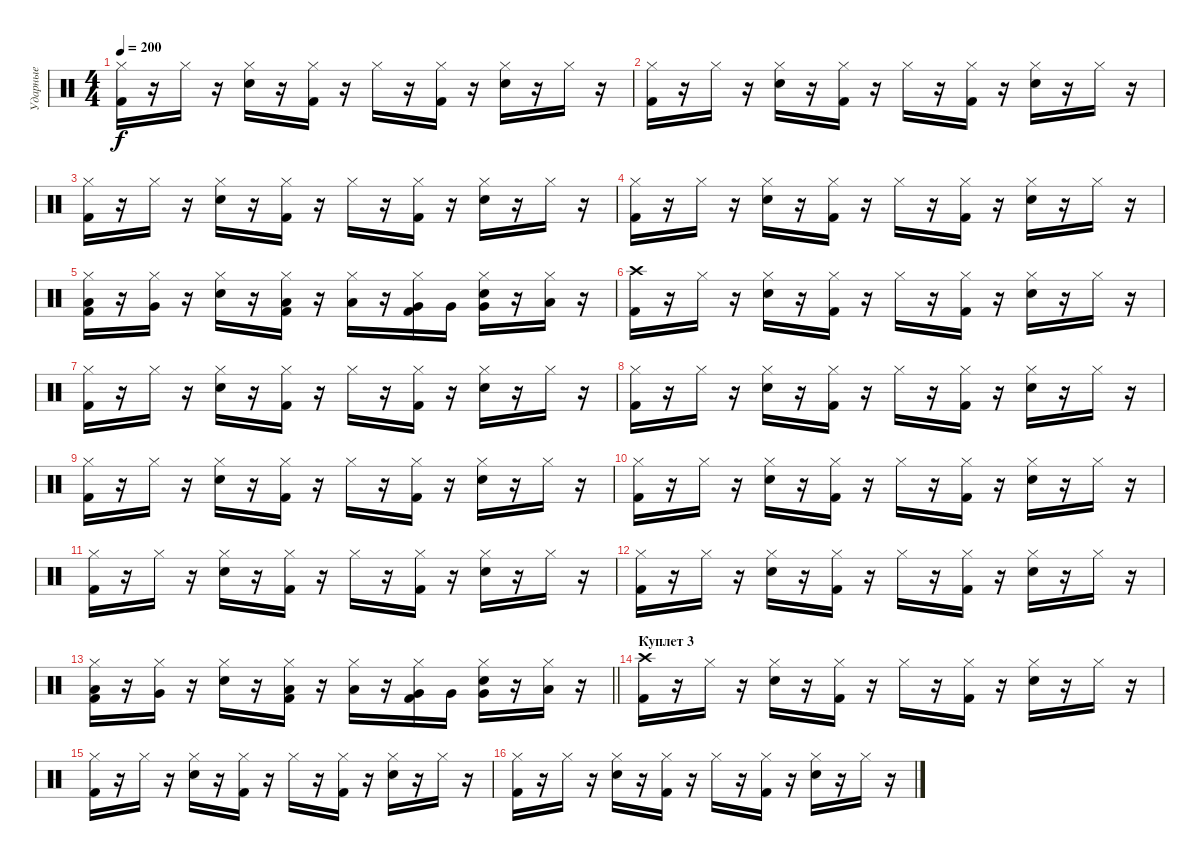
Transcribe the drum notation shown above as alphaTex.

\track ("Ударные" "Ударные") {instrument percussion}
\staff {score}
\articulation defaults
\ts (4 4)
\tempo 200
\clef neutral
\ks c
("Kick (hit) 2" "Hi-Hat (closed)").16{dy f} r.16 "Hi-Hat (closed)".16 r.16 ("Snare (hit) 2" "Hi-Hat (closed)").16 r.16 ("Kick (hit) 2" "Hi-Hat (closed)").16 r.16 "Hi-Hat (closed)".16 r.16 ("Kick (hit) 2" "Hi-Hat (closed)").16 r.16 ("Snare (hit) 2" "Hi-Hat (closed)").16 r.16 "Hi-Hat (closed)".16 r.16 |
("Kick (hit) 2" "Hi-Hat (closed)").16 r.16 "Hi-Hat (closed)".16 r.16 ("Snare (hit) 2" "Hi-Hat (closed)").16 r.16 ("Kick (hit) 2" "Hi-Hat (closed)").16 r.16 "Hi-Hat (closed)".16 r.16 ("Kick (hit) 2" "Hi-Hat (closed)").16 r.16 ("Snare (hit) 2" "Hi-Hat (closed)").16 r.16 "Hi-Hat (closed)".16 r.16 |
("Kick (hit) 2" "Hi-Hat (closed)").16 r.16 "Hi-Hat (closed)".16 r.16 ("Snare (hit) 2" "Hi-Hat (closed)").16 r.16 ("Kick (hit) 2" "Hi-Hat (closed)").16 r.16 "Hi-Hat (closed)".16 r.16 ("Kick (hit) 2" "Hi-Hat (closed)").16 r.16 ("Snare (hit) 2" "Hi-Hat (closed)").16 r.16 "Hi-Hat (closed)".16 r.16 |
("Kick (hit) 2" "Hi-Hat (closed)").16 r.16 "Hi-Hat (closed)".16 r.16 ("Snare (hit) 2" "Hi-Hat (closed)").16 r.16 ("Kick (hit) 2" "Hi-Hat (closed)").16 r.16 "Hi-Hat (closed)".16 r.16 ("Kick (hit) 2" "Hi-Hat (closed)").16 r.16 ("Snare (hit) 2" "Hi-Hat (closed)").16 r.16 "Hi-Hat (closed)".16 r.16 |
("Kick (hit) 2" "Low Floor Tom (hit)" "Hi-Hat (closed)").16 r.16 ("Very Low Tom (hit)" "Hi-Hat (closed)").16 r.16 ("Snare (hit) 2" "Hi-Hat (closed)").16 r.16 ("Kick (hit) 2" "Low Floor Tom (hit)" "Hi-Hat (closed)").16 r.16 ("Low Floor Tom (hit)" "Hi-Hat (closed)").16 r.16 ("Kick (hit) 2" "Very Low Tom (hit)" "Hi-Hat (closed)").16 "Very Low Tom (hit)".16 ("Snare (hit) 2" "Very Low Tom (hit)" "Hi-Hat (closed)").16 r.16 ("Low Tom (hit)" "Hi-Hat (closed)").16 r.16 |
("Kick (hit) 2" "Crash high (hit)").16 r.16 "Hi-Hat (closed)".16 r.16 ("Snare (hit) 2" "Hi-Hat (closed)").16 r.16 ("Kick (hit) 2" "Hi-Hat (closed)").16 r.16 "Hi-Hat (closed)".16 r.16 ("Kick (hit) 2" "Hi-Hat (closed)").16 r.16 ("Snare (hit) 2" "Hi-Hat (closed)").16 r.16 "Hi-Hat (closed)".16 r.16 |
("Kick (hit) 2" "Hi-Hat (closed)").16 r.16 "Hi-Hat (closed)".16 r.16 ("Snare (hit) 2" "Hi-Hat (closed)").16 r.16 ("Kick (hit) 2" "Hi-Hat (closed)").16 r.16 "Hi-Hat (closed)".16 r.16 ("Kick (hit) 2" "Hi-Hat (closed)").16 r.16 ("Snare (hit) 2" "Hi-Hat (closed)").16 r.16 "Hi-Hat (closed)".16 r.16 |
("Kick (hit) 2" "Hi-Hat (closed)").16 r.16 "Hi-Hat (closed)".16 r.16 ("Snare (hit) 2" "Hi-Hat (closed)").16 r.16 ("Kick (hit) 2" "Hi-Hat (closed)").16 r.16 "Hi-Hat (closed)".16 r.16 ("Kick (hit) 2" "Hi-Hat (closed)").16 r.16 ("Snare (hit) 2" "Hi-Hat (closed)").16 r.16 "Hi-Hat (closed)".16 r.16 |
("Kick (hit) 2" "Hi-Hat (closed)").16 r.16 "Hi-Hat (closed)".16 r.16 ("Snare (hit) 2" "Hi-Hat (closed)").16 r.16 ("Kick (hit) 2" "Hi-Hat (closed)").16 r.16 "Hi-Hat (closed)".16 r.16 ("Kick (hit) 2" "Hi-Hat (closed)").16 r.16 ("Snare (hit) 2" "Hi-Hat (closed)").16 r.16 "Hi-Hat (closed)".16 r.16 |
("Kick (hit) 2" "Hi-Hat (closed)").16 r.16 "Hi-Hat (closed)".16 r.16 ("Snare (hit) 2" "Hi-Hat (closed)").16 r.16 ("Kick (hit) 2" "Hi-Hat (closed)").16 r.16 "Hi-Hat (closed)".16 r.16 ("Kick (hit) 2" "Hi-Hat (closed)").16 r.16 ("Snare (hit) 2" "Hi-Hat (closed)").16 r.16 "Hi-Hat (closed)".16 r.16 |
("Kick (hit) 2" "Hi-Hat (closed)").16 r.16 "Hi-Hat (closed)".16 r.16 ("Snare (hit) 2" "Hi-Hat (closed)").16 r.16 ("Kick (hit) 2" "Hi-Hat (closed)").16 r.16 "Hi-Hat (closed)".16 r.16 ("Kick (hit) 2" "Hi-Hat (closed)").16 r.16 ("Snare (hit) 2" "Hi-Hat (closed)").16 r.16 "Hi-Hat (closed)".16 r.16 |
("Kick (hit) 2" "Hi-Hat (closed)").16 r.16 "Hi-Hat (closed)".16 r.16 ("Snare (hit) 2" "Hi-Hat (closed)").16 r.16 ("Kick (hit) 2" "Hi-Hat (closed)").16 r.16 "Hi-Hat (closed)".16 r.16 ("Kick (hit) 2" "Hi-Hat (closed)").16 r.16 ("Snare (hit) 2" "Hi-Hat (closed)").16 r.16 "Hi-Hat (closed)".16 r.16 |
\barLineRight lightlight
("Kick (hit) 2" "Low Floor Tom (hit)" "Hi-Hat (closed)").16 r.16 ("Very Low Tom (hit)" "Hi-Hat (closed)").16 r.16 ("Snare (hit) 2" "Hi-Hat (closed)").16 r.16 ("Kick (hit) 2" "Low Floor Tom (hit)" "Hi-Hat (closed)").16 r.16 ("Low Floor Tom (hit)" "Hi-Hat (closed)").16 r.16 ("Kick (hit) 2" "Very Low Tom (hit)" "Hi-Hat (closed)").16 "Very Low Tom (hit)".16 ("Snare (hit) 2" "Very Low Tom (hit)" "Hi-Hat (closed)").16 r.16 ("Low Tom (hit)" "Hi-Hat (closed)").16 r.16 |
\section ("" "Куплет 3")
("Kick (hit) 2" "Crash high (hit)").16 r.16 "Hi-Hat (closed)".16 r.16 ("Snare (hit) 2" "Hi-Hat (closed)").16 r.16 ("Kick (hit) 2" "Hi-Hat (closed)").16 r.16 "Hi-Hat (closed)".16 r.16 ("Kick (hit) 2" "Hi-Hat (closed)").16 r.16 ("Snare (hit) 2" "Hi-Hat (closed)").16 r.16 "Hi-Hat (closed)".16 r.16 |
("Kick (hit) 2" "Hi-Hat (closed)").16 r.16 "Hi-Hat (closed)".16 r.16 ("Snare (hit) 2" "Hi-Hat (closed)").16 r.16 ("Kick (hit) 2" "Hi-Hat (closed)").16 r.16 "Hi-Hat (closed)".16 r.16 ("Kick (hit) 2" "Hi-Hat (closed)").16 r.16 ("Snare (hit) 2" "Hi-Hat (closed)").16 r.16 "Hi-Hat (closed)".16 r.16 |
("Kick (hit) 2" "Hi-Hat (closed)").16 r.16 "Hi-Hat (closed)".16 r.16 ("Snare (hit) 2" "Hi-Hat (closed)").16 r.16 ("Kick (hit) 2" "Hi-Hat (closed)").16 r.16 "Hi-Hat (closed)".16 r.16 ("Kick (hit) 2" "Hi-Hat (closed)").16 r.16 ("Snare (hit) 2" "Hi-Hat (closed)").16 r.16 "Hi-Hat (closed)".16 r.16
